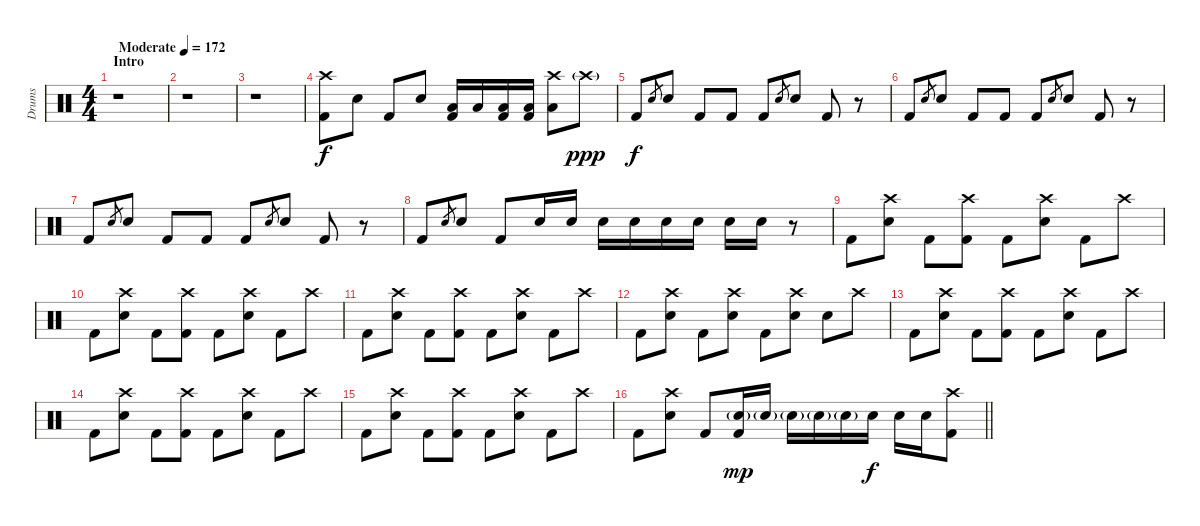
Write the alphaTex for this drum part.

\track ("Drums" "Drums") {instrument percussion}
\staff {score}
\articulation defaults
\ts (4 4)
\section ("" "Intro")
\tempo (172 "Moderate")
\clef neutral
\ks c
r.1{dy f} |
r.1 |
r.1 |
("Crash high (hit)" "Kick (hit) 2").8 "Electric Snare (hit)".8 "Kick (hit) 2".8 "Electric Snare (hit)".8 ("Low Tom (hit)" "Kick (hit) 2").16 "Low Tom (hit)".16 ("Low Floor Tom (hit)" "Kick (hit) 2").16 ("Low Floor Tom (hit)" "Kick (hit) 2").16 ("Crash high (hit)" "Low Floor Tom (hit)").8 "Crash high (hit)"{g}.8{dy ppp} |
"Kick (hit) 2".8{dy f} "Electric Snare (hit)".8{gr} "Electric Snare (hit)".8 "Kick (hit) 2".8 "Kick (hit) 2".8 "Kick (hit) 2".8 "Electric Snare (hit)".8{gr} "Electric Snare (hit)".8 "Kick (hit) 2".8 r.8 |
"Kick (hit) 2".8 "Electric Snare (hit)".8{gr} "Electric Snare (hit)".8 "Kick (hit) 2".8 "Kick (hit) 2".8 "Kick (hit) 2".8 "Electric Snare (hit)".8{gr} "Electric Snare (hit)".8 "Kick (hit) 2".8 r.8 |
"Kick (hit) 2".8 "Electric Snare (hit)".8{gr} "Electric Snare (hit)".8 "Kick (hit) 2".8 "Kick (hit) 2".8 "Kick (hit) 2".8 "Electric Snare (hit)".8{gr} "Electric Snare (hit)".8 "Kick (hit) 2".8 r.8 |
"Kick (hit) 2".8 "Electric Snare (hit)".8{gr} "Electric Snare (hit)".8 "Kick (hit) 2".8 "Electric Snare (hit)".16 "Electric Snare (hit)".16 "Electric Snare (hit)".16 "Electric Snare (hit)".16 "Electric Snare (hit)".16 "Electric Snare (hit)".16 "Electric Snare (hit)".16 "Electric Snare (hit)".16 r.8 |
"Kick (hit) 2".8 ("Crash high (hit)" "Electric Snare (hit)").8 "Kick (hit) 2".8 ("Crash high (hit)" "Kick (hit) 2").8 "Kick (hit) 2".8 ("Crash high (hit)" "Electric Snare (hit)").8 "Kick (hit) 2".8 "Crash high (hit)".8 |
"Kick (hit) 2".8 ("Crash high (hit)" "Electric Snare (hit)").8 "Kick (hit) 2".8 ("Crash high (hit)" "Kick (hit) 2").8 "Kick (hit) 2".8 ("Crash high (hit)" "Electric Snare (hit)").8 "Kick (hit) 2".8 "Crash high (hit)".8 |
"Kick (hit) 2".8 ("Crash high (hit)" "Electric Snare (hit)").8 "Kick (hit) 2".8 ("Crash high (hit)" "Kick (hit) 2").8 "Kick (hit) 2".8 ("Crash high (hit)" "Electric Snare (hit)").8 "Kick (hit) 2".8 "Crash high (hit)".8 |
"Kick (hit) 2".8 ("Crash high (hit)" "Electric Snare (hit)").8 "Kick (hit) 2".8 ("Crash high (hit)" "Electric Snare (hit)").8 "Kick (hit) 2".8 ("Crash high (hit)" "Electric Snare (hit)").8 "Electric Snare (hit)".8 "Crash high (hit)".8 |
"Kick (hit) 2".8 ("Crash high (hit)" "Electric Snare (hit)").8 "Kick (hit) 2".8 ("Crash high (hit)" "Kick (hit) 2").8 "Kick (hit) 2".8 ("Crash high (hit)" "Electric Snare (hit)").8 "Kick (hit) 2".8 "Crash high (hit)".8 |
"Kick (hit) 2".8 ("Crash high (hit)" "Electric Snare (hit)").8 "Kick (hit) 2".8 ("Crash high (hit)" "Kick (hit) 2").8 "Kick (hit) 2".8 ("Crash high (hit)" "Electric Snare (hit)").8 "Kick (hit) 2".8 "Crash high (hit)".8 |
"Kick (hit) 2".8 ("Crash high (hit)" "Electric Snare (hit)").8 "Kick (hit) 2".8 ("Crash high (hit)" "Kick (hit) 2").8 "Kick (hit) 2".8 ("Crash high (hit)" "Electric Snare (hit)").8 "Kick (hit) 2".8 "Crash high (hit)".8 |
\barLineRight lightlight "Kick (hit) 2".8
("Crash high (hit)" "Electric Snare (hit)").8 "Kick (hit) 2".8 ("Electric Snare (hit)"{g} "Kick (hit) 2").16{dy mp} "Electric Snare (hit)"{g}.16 "Electric Snare (hit)"{g}.16 "Electric Snare (hit)"{g}.16 "Electric Snare (hit)"{g}.16 "Electric Snare (hit)".16{dy f} "Electric Snare (hit)".16 "Electric Snare (hit)".16 ("Crash high (hit)" "Kick (hit) 2").8
